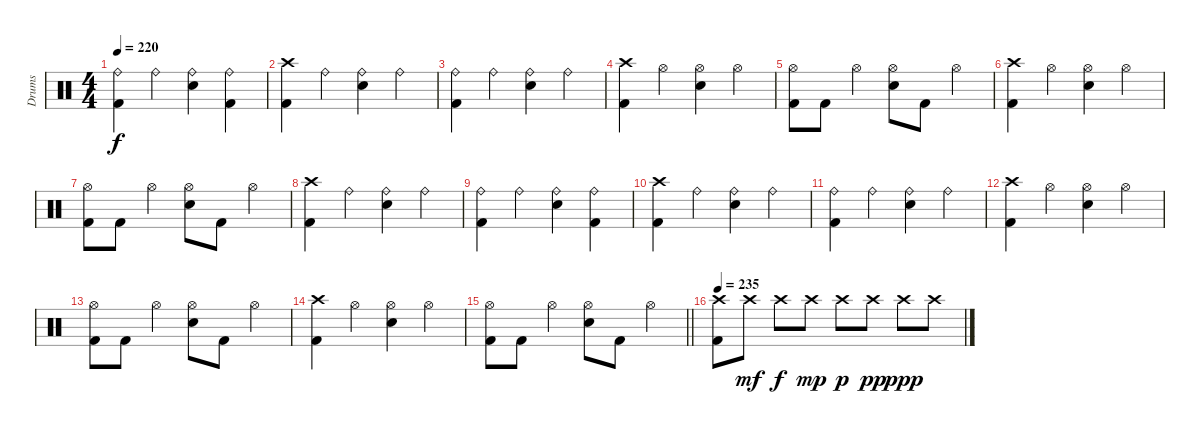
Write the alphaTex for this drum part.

\track ("Drums" "Drums") {instrument percussion}
\staff {score}
\articulation defaults
\ts (4 4)
\tempo 220
\clef neutral
\ks c
("Ride (bell)" "Kick (hit) 2").4{dy f} "Ride (bell)".4 ("Ride (bell)" "Snare (hit) 2").4 ("Ride (bell)" "Kick (hit) 2").4 |
("Crash high (hit)" "Kick (hit) 2").4 "Ride (bell)".4 ("Ride (bell)" "Snare (hit) 2").4 "Ride (bell)".4 |
("Ride (bell)" "Kick (hit) 2").4 "Ride (bell)".4 ("Ride (bell)" "Snare (hit) 2").4 "Ride (bell)".4 |
("Crash high (hit)" "Kick (hit) 2").4 "Hi-Hat (open)".4 ("Hi-Hat (open)" "Snare (hit) 2").4 "Hi-Hat (open)".4 |
("Hi-Hat (open)" "Kick (hit) 2").8 "Kick (hit) 2".8 "Hi-Hat (open)".4 ("Hi-Hat (open)" "Snare (hit) 2").8 "Kick (hit) 2".8 "Hi-Hat (open)".4 |
("Crash high (hit)" "Kick (hit) 2").4 "Hi-Hat (open)".4 ("Hi-Hat (open)" "Snare (hit) 2").4 "Hi-Hat (open)".4 |
("Hi-Hat (open)" "Kick (hit) 2").8 "Kick (hit) 2".8 "Hi-Hat (open)".4 ("Hi-Hat (open)" "Snare (hit) 2").8 "Kick (hit) 2".8 "Hi-Hat (open)".4 |
("Crash high (hit)" "Kick (hit) 2").4 "Ride (bell)".4 ("Ride (bell)" "Snare (hit) 2").4 "Ride (bell)".4 |
("Ride (bell)" "Kick (hit) 2").4 "Ride (bell)".4 ("Ride (bell)" "Snare (hit) 2").4 ("Ride (bell)" "Kick (hit) 2").4 |
("Crash high (hit)" "Kick (hit) 2").4 "Ride (bell)".4 ("Ride (bell)" "Snare (hit) 2").4 "Ride (bell)".4 |
("Ride (bell)" "Kick (hit) 2").4 "Ride (bell)".4 ("Ride (bell)" "Snare (hit) 2").4 "Ride (bell)".4 |
("Crash high (hit)" "Kick (hit) 2").4 "Hi-Hat (open)".4 ("Hi-Hat (open)" "Snare (hit) 2").4 "Hi-Hat (open)".4 |
("Hi-Hat (open)" "Kick (hit) 2").8 "Kick (hit) 2".8 "Hi-Hat (open)".4 ("Hi-Hat (open)" "Snare (hit) 2").8 "Kick (hit) 2".8 "Hi-Hat (open)".4 |
("Crash high (hit)" "Kick (hit) 2").4 "Hi-Hat (open)".4 ("Hi-Hat (open)" "Snare (hit) 2").4 "Hi-Hat (open)".4 |
\barLineRight lightlight
("Hi-Hat (open)" "Kick (hit) 2").8 "Kick (hit) 2".8 "Hi-Hat (open)".4 ("Hi-Hat (open)" "Snare (hit) 2").8 "Kick (hit) 2".8 "Hi-Hat (open)".4 |
\tempo 235
("Crash high (hit)" "Kick (hit) 2").8 "Crash high (hit)".8{dy mf} "Crash high (hit)".8{dy f} "Crash high (hit)".8{dy mp} "Crash high (hit)".8{dy p} "Crash high (hit)".8{dy pp} "Crash high (hit)".8{dy ppp} "Crash high (hit)".8
